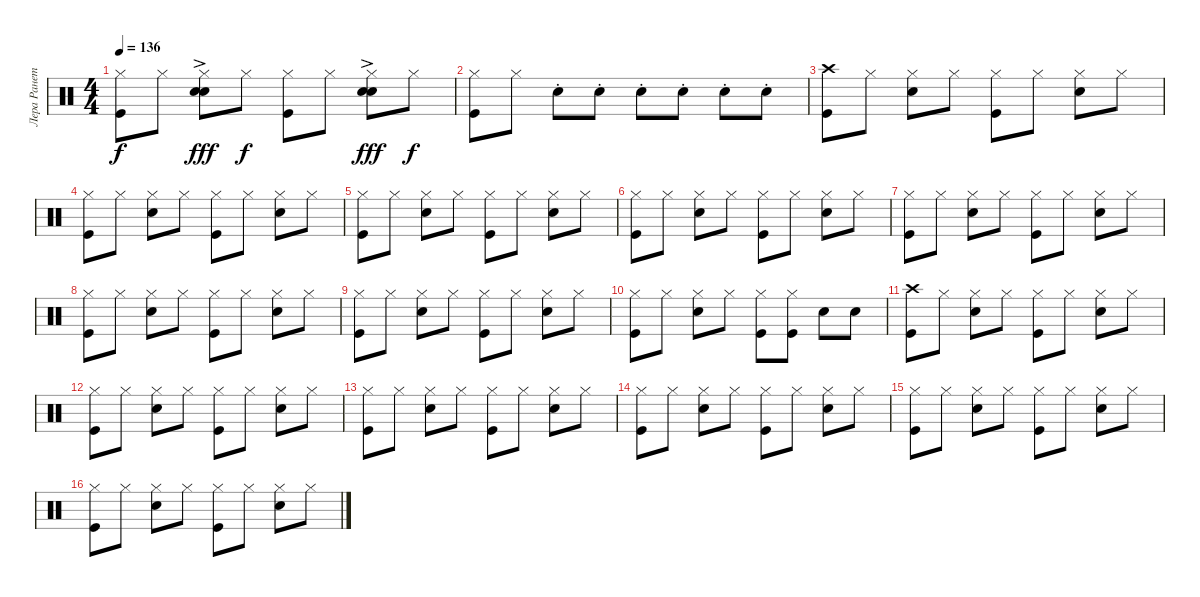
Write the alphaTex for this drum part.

\track ("Лера Ранетка" "Лера Ранет") {instrument percussion}
\staff {score}
\articulation defaults
\ts (4 4)
\tempo 136
\clef neutral
\ks c
("Hi-Hat (closed)" "Kick (hit)").8{dy f} "Hi-Hat (closed)".8 ("Hi-Hat (closed)" "Electric Snare (hit)" "Hand Clap (hit)"{ac}).8{dy fff} "Hi-Hat (closed)".8{dy f} ("Hi-Hat (closed)" "Kick (hit)").8 "Hi-Hat (closed)".8 ("Hi-Hat (closed)" "Electric Snare (hit)" "Hand Clap (hit)"{ac}).8{dy fff} "Hi-Hat (closed)".8{dy f} |
("Hi-Hat (closed)" "Kick (hit)").8 "Hi-Hat (closed)".8 "Electric Snare (hit)"{st}.8 "Electric Snare (hit)"{st}.8 "Electric Snare (hit)"{st}.8 "Electric Snare (hit)"{st}.8 "Electric Snare (hit)"{st}.8 "Electric Snare (hit)"{st}.8 |
("Crash high (hit)" "Kick (hit)").8{volume 16} "Hi-Hat (closed)".8 ("Hi-Hat (closed)" "Electric Snare (hit)").8 "Hi-Hat (closed)".8 ("Hi-Hat (closed)" "Kick (hit)").8 "Hi-Hat (closed)".8 ("Hi-Hat (closed)" "Electric Snare (hit)").8 "Hi-Hat (closed)".8 |
("Hi-Hat (closed)" "Kick (hit)").8 "Hi-Hat (closed)".8 ("Hi-Hat (closed)" "Electric Snare (hit)").8 "Hi-Hat (closed)".8 ("Hi-Hat (closed)" "Kick (hit)").8 "Hi-Hat (closed)".8 ("Hi-Hat (closed)" "Electric Snare (hit)").8 "Hi-Hat (closed)".8 |
("Hi-Hat (closed)" "Kick (hit)").8 "Hi-Hat (closed)".8 ("Hi-Hat (closed)" "Electric Snare (hit)").8 "Hi-Hat (closed)".8 ("Hi-Hat (closed)" "Kick (hit)").8 "Hi-Hat (closed)".8 ("Hi-Hat (closed)" "Electric Snare (hit)").8 "Hi-Hat (closed)".8 |
("Hi-Hat (closed)" "Kick (hit)").8 "Hi-Hat (closed)".8 ("Hi-Hat (closed)" "Electric Snare (hit)").8 "Hi-Hat (closed)".8 ("Hi-Hat (closed)" "Kick (hit)").8 "Hi-Hat (closed)".8 ("Hi-Hat (closed)" "Electric Snare (hit)").8 "Hi-Hat (closed)".8 |
("Hi-Hat (closed)" "Kick (hit)").8 "Hi-Hat (closed)".8 ("Hi-Hat (closed)" "Electric Snare (hit)").8 "Hi-Hat (closed)".8 ("Hi-Hat (closed)" "Kick (hit)").8 "Hi-Hat (closed)".8 ("Hi-Hat (closed)" "Electric Snare (hit)").8 "Hi-Hat (closed)".8 |
("Hi-Hat (closed)" "Kick (hit)").8 "Hi-Hat (closed)".8 ("Hi-Hat (closed)" "Electric Snare (hit)").8 "Hi-Hat (closed)".8 ("Hi-Hat (closed)" "Kick (hit)").8 "Hi-Hat (closed)".8 ("Hi-Hat (closed)" "Electric Snare (hit)").8 "Hi-Hat (closed)".8 |
("Hi-Hat (closed)" "Kick (hit)").8 "Hi-Hat (closed)".8 ("Hi-Hat (closed)" "Electric Snare (hit)").8 "Hi-Hat (closed)".8 ("Hi-Hat (closed)" "Kick (hit)").8 "Hi-Hat (closed)".8 ("Hi-Hat (closed)" "Electric Snare (hit)").8 "Hi-Hat (closed)".8 |
("Hi-Hat (closed)" "Kick (hit)").8 "Hi-Hat (closed)".8 ("Hi-Hat (closed)" "Electric Snare (hit)").8 "Hi-Hat (closed)".8 ("Hi-Hat (closed)" "Kick (hit)").8 ("Hi-Hat (closed)" "Kick (hit)").8 "Electric Snare (hit)".8 "Electric Snare (hit)".8 |
("Crash high (hit)" "Kick (hit)").8 "Hi-Hat (closed)".8 ("Hi-Hat (closed)" "Electric Snare (hit)").8 "Hi-Hat (closed)".8 ("Hi-Hat (closed)" "Kick (hit)").8 "Hi-Hat (closed)".8 ("Hi-Hat (closed)" "Electric Snare (hit)").8 "Hi-Hat (closed)".8 |
("Hi-Hat (closed)" "Kick (hit)").8 "Hi-Hat (closed)".8 ("Hi-Hat (closed)" "Electric Snare (hit)").8 "Hi-Hat (closed)".8 ("Hi-Hat (closed)" "Kick (hit)").8 "Hi-Hat (closed)".8 ("Hi-Hat (closed)" "Electric Snare (hit)").8 "Hi-Hat (closed)".8 |
("Hi-Hat (closed)" "Kick (hit)").8 "Hi-Hat (closed)".8 ("Hi-Hat (closed)" "Electric Snare (hit)").8 "Hi-Hat (closed)".8 ("Hi-Hat (closed)" "Kick (hit)").8 "Hi-Hat (closed)".8 ("Hi-Hat (closed)" "Electric Snare (hit)").8 "Hi-Hat (closed)".8 |
("Hi-Hat (closed)" "Kick (hit)").8 "Hi-Hat (closed)".8 ("Hi-Hat (closed)" "Electric Snare (hit)").8 "Hi-Hat (closed)".8 ("Hi-Hat (closed)" "Kick (hit)").8 "Hi-Hat (closed)".8 ("Hi-Hat (closed)" "Electric Snare (hit)").8 "Hi-Hat (closed)".8 |
("Hi-Hat (closed)" "Kick (hit)").8 "Hi-Hat (closed)".8 ("Hi-Hat (closed)" "Electric Snare (hit)").8 "Hi-Hat (closed)".8 ("Hi-Hat (closed)" "Kick (hit)").8 "Hi-Hat (closed)".8 ("Hi-Hat (closed)" "Electric Snare (hit)").8 "Hi-Hat (closed)".8 |
("Hi-Hat (closed)" "Kick (hit)").8 "Hi-Hat (closed)".8 ("Hi-Hat (closed)" "Electric Snare (hit)").8 "Hi-Hat (closed)".8 ("Hi-Hat (closed)" "Kick (hit)").8 "Hi-Hat (closed)".8 ("Hi-Hat (closed)" "Electric Snare (hit)").8 "Hi-Hat (closed)".8
